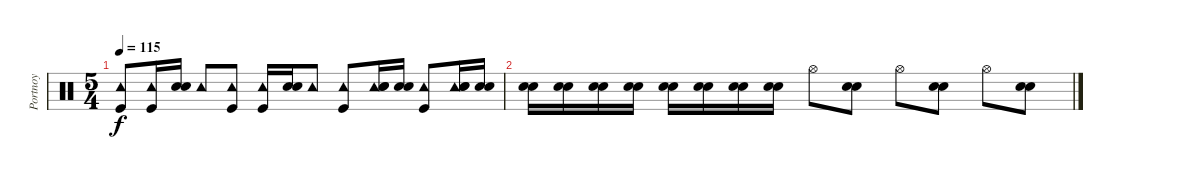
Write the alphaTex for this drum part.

\track ("Portnoy" "Portnoy") {instrument percussion}
\staff {score}
\articulation defaults
\ts (5 4)
\tempo 115
\clef neutral
\ks c
("Tambourine (hit)" "Kick (hit)").8{dy f} ("Tambourine (hit)" "Kick (hit)").16 ("Snare (hit) 2" "Electric Snare (hit)").16 "Tambourine (hit)".8 ("Tambourine (hit)" "Kick (hit)").8 ("Tambourine (hit)" "Kick (hit)").16 ("Snare (hit) 2" "Electric Snare (hit)").16 "Tambourine (hit)".8 ("Tambourine (hit)" "Kick (hit)").8 ("Tambourine (hit)" "Snare (hit) 2" "Electric Snare (hit)").16 ("Snare (hit) 2" "Electric Snare (hit)").16 ("Tambourine (hit)" "Kick (hit)").8 ("Tambourine (hit)" "Snare (hit) 2" "Electric Snare (hit)").16 ("Snare (hit) 2" "Electric Snare (hit)").16 |
("Snare (hit) 2" "Electric Snare (hit)").16 ("Snare (hit) 2" "Electric Snare (hit)").16 ("Snare (hit) 2" "Electric Snare (hit)").16 ("Snare (hit) 2" "Electric Snare (hit)").16 ("Snare (hit) 2" "Electric Snare (hit)").16 ("Snare (hit) 2" "Electric Snare (hit)").16 ("Snare (hit) 2" "Electric Snare (hit)").16 ("Snare (hit) 2" "Electric Snare (hit)").16 "Hi-Hat (open)".8 ("Snare (hit) 2" "Electric Snare (hit)").8 "Hi-Hat (open)".8 ("Snare (hit) 2" "Electric Snare (hit)").8 "Hi-Hat (open)".8 ("Snare (hit) 2" "Electric Snare (hit)").8
